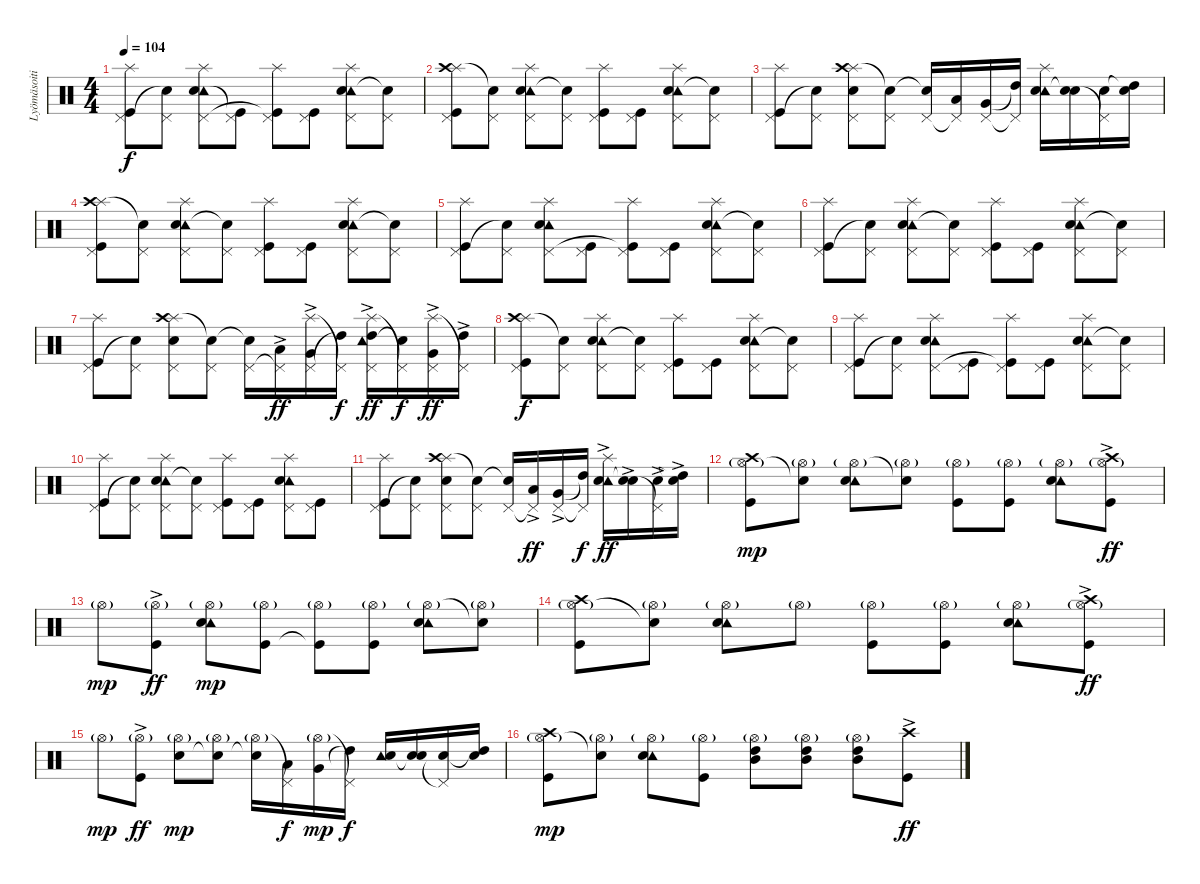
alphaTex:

\track ("Lyömäsoitin" "Lyömäsoiti") {instrument percussion}
\staff {score}
\articulation defaults
\ts (4 4)
\tempo 104
\clef neutral
\ks c
("Splash (hit)" "Pedal Hi-Hat (hit)" "Kick (hit)").8{dy f} ("Pedal Hi-Hat (hit)" "Snare (hit)"{t}).8 ("Splash (hit)" "Tambourine (hit)" "Pedal Hi-Hat (hit)" "Snare (hit) 2").8 ("Pedal Hi-Hat (hit)" "Kick (hit)"{t}).8 ("Splash (hit)" "Pedal Hi-Hat (hit)" "Kick (hit)"{t}).8 ("Pedal Hi-Hat (hit)" "Kick (hit)").8 ("Splash (hit)" "Tambourine (hit)" "Pedal Hi-Hat (hit)" "Snare (hit) 2").8 ("Pedal Hi-Hat (hit)" "Snare (hit) 2"{t}).8 |
("Splash (hit)" "Crash high (hit)" "Pedal Hi-Hat (hit)" "Kick (hit)").8 ("Pedal Hi-Hat (hit)" "Snare (hit)"{t}).8 ("Splash (hit)" "Tambourine (hit)" "Pedal Hi-Hat (hit)" "Snare (hit) 2").8 ("Pedal Hi-Hat (hit)" "Snare (hit)"{t}).8 ("Splash (hit)" "Pedal Hi-Hat (hit)" "Kick (hit)").8 ("Pedal Hi-Hat (hit)" "Kick (hit)").8 ("Splash (hit)" "Tambourine (hit)" "Pedal Hi-Hat (hit)" "Snare (hit) 2").8 ("Pedal Hi-Hat (hit)" "Snare (hit)"{t}).8 |
("Splash (hit)" "Pedal Hi-Hat (hit)" "Kick (hit)").8 ("Pedal Hi-Hat (hit)" "Snare (hit)"{t}).8 ("Splash (hit)" "Crash high (hit)" "Pedal Hi-Hat (hit)" "Snare (hit) 2").8 ("Pedal Hi-Hat (hit)" "Snare (hit)"{t}).8 ("Pedal Hi-Hat (hit)" "Snare (hit)"{t}).16 ("Pedal Hi-Hat (hit)"{t} "Low Tom (hit)").16 ("Pedal Hi-Hat (hit)" "Very Low Tom (hit)").16 ("Pedal Hi-Hat (hit)"{t} "High Tom (hit)"{t}).16 ("Splash (hit)" "Tambourine (hit)" "Electric Snare (hit)").16 ("Electric Snare (hit)" "Snare (hit)"{t}).16 ("Pedal Hi-Hat (hit)"{t} "Electric Snare (hit)").16 ("Electric Snare (hit)" "High Tom (hit)"{t}).16 |
("Splash (hit)" "Crash high (hit)" "Pedal Hi-Hat (hit)" "Kick (hit)").8{volume 14} ("Pedal Hi-Hat (hit)" "Snare (hit)"{t}).8 ("Splash (hit)" "Tambourine (hit)" "Pedal Hi-Hat (hit)" "Snare (hit) 2").8 ("Pedal Hi-Hat (hit)" "Snare (hit)"{t}).8 ("Splash (hit)" "Pedal Hi-Hat (hit)" "Kick (hit)").8 ("Pedal Hi-Hat (hit)" "Kick (hit)").8 ("Splash (hit)" "Tambourine (hit)" "Pedal Hi-Hat (hit)" "Snare (hit) 2").8 ("Pedal Hi-Hat (hit)" "Snare (hit)"{t}).8 |
("Splash (hit)" "Pedal Hi-Hat (hit)" "Kick (hit)").8 ("Pedal Hi-Hat (hit)" "Snare (hit)"{t}).8 ("Splash (hit)" "Tambourine (hit)" "Pedal Hi-Hat (hit)" "Snare (hit) 2").8 ("Pedal Hi-Hat (hit)" "Kick (hit)").8 ("Splash (hit)" "Pedal Hi-Hat (hit)" "Kick (hit)"{t}).8 ("Pedal Hi-Hat (hit)" "Kick (hit)").8 ("Splash (hit)" "Tambourine (hit)" "Pedal Hi-Hat (hit)" "Snare (hit) 2").8 ("Pedal Hi-Hat (hit)" "Snare (hit) 2"{t}).8 |
("Splash (hit)" "Pedal Hi-Hat (hit)" "Kick (hit)").8 ("Pedal Hi-Hat (hit)" "Snare (hit)"{t}).8 ("Splash (hit)" "Tambourine (hit)" "Pedal Hi-Hat (hit)" "Snare (hit) 2").8 ("Pedal Hi-Hat (hit)" "Snare (hit)"{t}).8 ("Splash (hit)" "Pedal Hi-Hat (hit)" "Kick (hit)").8 ("Pedal Hi-Hat (hit)" "Kick (hit)").8 ("Splash (hit)" "Tambourine (hit)" "Pedal Hi-Hat (hit)" "Snare (hit) 2").8 ("Pedal Hi-Hat (hit)" "Snare (hit)"{t}).8 |
("Splash (hit)" "Pedal Hi-Hat (hit)" "Kick (hit)").8 ("Pedal Hi-Hat (hit)" "Snare (hit)"{t}).8 ("Splash (hit)" "Crash high (hit)" "Pedal Hi-Hat (hit)" "Snare (hit) 2").8 ("Pedal Hi-Hat (hit)" "Snare (hit)"{t}).8 ("Pedal Hi-Hat (hit)" "Snare (hit)"{t}).16 ("Pedal Hi-Hat (hit)"{t} "Low Tom (hit)"{ac}).16{dy ff} ("Splash (hit)"{ac} "Pedal Hi-Hat (hit)"{ac} "Very Low Tom (hit)"{ac}).16 ("Pedal Hi-Hat (hit)"{t} "High Tom (hit)"{t}).16{dy f} ("Splash (hit)"{ac} "Tambourine (hit)"{ac} "Pedal Hi-Hat (hit)"{ac} "High Tom (hit)"{ac}).16{dy ff} ("Pedal Hi-Hat (hit)"{t} "Snare (hit)"{t}).16{dy f} ("Splash (hit)"{ac} "Pedal Hi-Hat (hit)"{ac} "Very Low Tom (hit)"{ac}).16{dy ff} ("Pedal Hi-Hat (hit)"{t} "High Tom (hit)"{ac}).16 |
("Splash (hit)" "Crash high (hit)" "Pedal Hi-Hat (hit)" "Kick (hit)").8{dy f} ("Pedal Hi-Hat (hit)" "Snare (hit)"{t}).8 ("Splash (hit)" "Tambourine (hit)" "Pedal Hi-Hat (hit)" "Snare (hit) 2").8 ("Pedal Hi-Hat (hit)" "Snare (hit)"{t}).8 ("Splash (hit)" "Pedal Hi-Hat (hit)" "Kick (hit)").8 ("Pedal Hi-Hat (hit)" "Kick (hit)").8 ("Splash (hit)" "Tambourine (hit)" "Pedal Hi-Hat (hit)" "Snare (hit) 2").8 ("Pedal Hi-Hat (hit)" "Snare (hit)"{t}).8 |
("Splash (hit)" "Pedal Hi-Hat (hit)" "Kick (hit)").8 ("Pedal Hi-Hat (hit)" "Snare (hit)"{t}).8 ("Splash (hit)" "Tambourine (hit)" "Pedal Hi-Hat (hit)" "Snare (hit) 2").8 ("Pedal Hi-Hat (hit)" "Kick (hit)").8 ("Splash (hit)" "Pedal Hi-Hat (hit)" "Kick (hit)"{t}).8 ("Pedal Hi-Hat (hit)" "Kick (hit)").8 ("Splash (hit)" "Tambourine (hit)" "Pedal Hi-Hat (hit)" "Snare (hit) 2").8 ("Pedal Hi-Hat (hit)" "Snare (hit) 2"{t}).8 |
("Splash (hit)" "Pedal Hi-Hat (hit)" "Kick (hit)").8 ("Pedal Hi-Hat (hit)" "Snare (hit)"{t}).8 ("Splash (hit)" "Tambourine (hit)" "Pedal Hi-Hat (hit)" "Snare (hit) 2").8 ("Pedal Hi-Hat (hit)" "Snare (hit)"{t}).8 ("Splash (hit)" "Pedal Hi-Hat (hit)" "Kick (hit)").8 ("Pedal Hi-Hat (hit)" "Kick (hit)").8 ("Splash (hit)" "Tambourine (hit)" "Pedal Hi-Hat (hit)" "Snare (hit) 2").8 ("Pedal Hi-Hat (hit)" "Kick (hit)").8 |
("Splash (hit)" "Pedal Hi-Hat (hit)" "Kick (hit)").8 ("Pedal Hi-Hat (hit)" "Snare (hit)"{t}).8 ("Splash (hit)" "Crash high (hit)" "Pedal Hi-Hat (hit)" "Snare (hit) 2").8 ("Pedal Hi-Hat (hit)" "Snare (hit)"{t}).8 ("Pedal Hi-Hat (hit)" "Snare (hit)"{t}).16 ("Pedal Hi-Hat (hit)"{t} "Low Tom (hit)"{ac}).16{dy ff} ("Pedal Hi-Hat (hit)"{ac} "Very Low Tom (hit)"{ac}).16 ("Pedal Hi-Hat (hit)"{t} "High Tom (hit)"{t}).16{dy f} ("Splash (hit)"{ac} "Tambourine (hit)"{ac} "Electric Snare (hit)"{ac}).16{dy ff} ("Electric Snare (hit)"{ac} "Snare (hit)"{t}).16 ("Pedal Hi-Hat (hit)"{t} "Electric Snare (hit)"{ac}).16 ("Electric Snare (hit)"{ac} "High Tom (hit)"{t}).16 |
("Crash high (hit)" "Hi-Hat (open)"{g} "Kick (hit)").8{dy mp} ("Hi-Hat (open)"{g} "Snare (hit)"{t}).8 ("Tambourine (hit)" "Hi-Hat (open)"{g} "Snare (hit) 2").8 ("Hi-Hat (open)"{g} "Snare (hit)"{t}).8 ("Hi-Hat (open)"{g} "Kick (hit)").8 ("Hi-Hat (open)"{g} "Kick (hit)").8 ("Tambourine (hit)" "Hi-Hat (open)"{g} "Snare (hit) 2").8 ("Crash high (hit)" "Hi-Hat (open)"{g} "Kick (hit)"{ac}).8{dy ff} |
"Hi-Hat (open)"{g}.8{dy mp} ("Hi-Hat (open)"{g} "Kick (hit)"{ac}).8{dy ff} ("Tambourine (hit)" "Hi-Hat (open)"{g} "Snare (hit) 2").8{dy mp} ("Hi-Hat (open)"{g} "Kick (hit)").8 ("Hi-Hat (open)"{g} "Kick (hit)"{t}).8 ("Hi-Hat (open)"{g} "Kick (hit)").8 ("Tambourine (hit)" "Hi-Hat (open)"{g} "Snare (hit) 2").8 ("Hi-Hat (open)"{g} "Snare (hit) 2"{t}).8 |
("Crash high (hit)" "Hi-Hat (open)"{g} "Kick (hit)").8 ("Hi-Hat (open)"{g} "Snare (hit)"{t}).8 ("Tambourine (hit)" "Hi-Hat (open)"{g} "Snare (hit) 2").8 "Hi-Hat (open)"{g}.8 ("Hi-Hat (open)"{g} "Kick (hit)").8 ("Hi-Hat (open)"{g} "Kick (hit)").8 ("Tambourine (hit)" "Hi-Hat (open)"{g} "Snare (hit) 2").8 ("Crash high (hit)" "Hi-Hat (open)"{g} "Kick (hit)"{ac}).8{dy ff} |
"Hi-Hat (open)"{g}.8{dy mp} ("Hi-Hat (open)"{g} "Kick (hit)"{ac}).8{dy ff} ("Hi-Hat (open)"{g} "Snare (hit) 2").8{dy mp} ("Hi-Hat (open)"{g} "Snare (hit)"{t}).8 ("Hi-Hat (open)"{g} "Snare (hit)"{t}).16 ("Pedal Hi-Hat (hit)"{t} "Low Tom (hit)").16{dy f} ("Hi-Hat (open)"{g} "Very Low Tom (hit)").16{dy mp} ("Pedal Hi-Hat (hit)"{t} "High Tom (hit)"{t}).16{dy f} ("Tambourine (hit)" "Electric Snare (hit)").16 ("Electric Snare (hit)" "Snare (hit)"{t}).16 ("Pedal Hi-Hat (hit)"{t} "Electric Snare (hit)").16 ("Electric Snare (hit)" "High Tom (hit)"{t}).16 |
("Crash high (hit)" "Hi-Hat (open)"{g} "Kick (hit)").8{dy mp} ("Hi-Hat (open)"{g} "Snare (hit)"{t}).8 ("Tambourine (hit)" "Hi-Hat (open)"{g} "Snare (hit) 2").8 ("Hi-Hat (open)"{g} "Kick (hit)").8 ("Hi-Hat (open)"{g} "High Tom (hit)" "Mid Tom (hit)").8 ("Hi-Hat (open)"{g} "High Tom (hit)" "Mid Tom (hit)").8 ("Hi-Hat (open)"{g} "High Tom (hit)" "Mid Tom (hit)").8 ("Crash high (hit)" "Kick (hit)"{ac}).8{dy ff}
